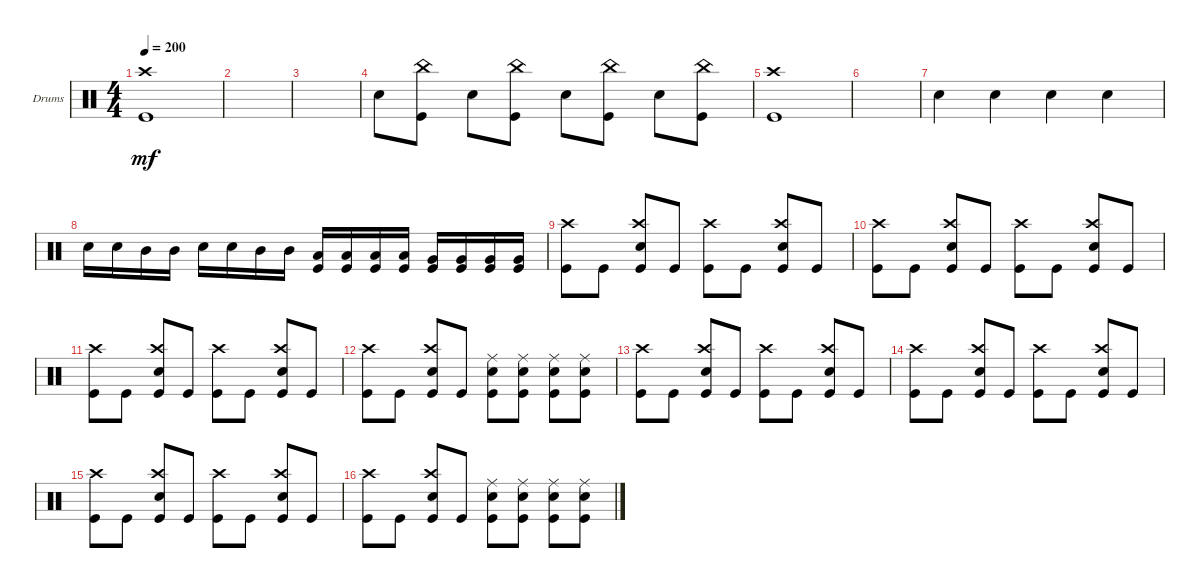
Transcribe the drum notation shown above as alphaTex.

\bracketExtendMode groupsimilarinstruments
\firstSystemTrackNameOrientation horizontal
\otherSystemsTrackNameOrientation horizontal
\track ("Drumkit" "Drums") {instrument percussion}
\staff {score}
\articulation defaults
\ts (4 4)
\tempo 200
\clef neutral
\ks c
("Kick (hit)" "Crash high (hit)").1{dy mf} |
|
|
"Snare (hit) 2".8 ("Kick (hit)" "China (hit)").8 "Snare (hit) 2".8 ("Kick (hit)" "China (hit)").8 "Snare (hit) 2".8 ("Kick (hit)" "China (hit)").8 "Snare (hit) 2".8 ("Kick (hit)" "China (hit)").8 |
("Kick (hit)" "Crash high (hit)").1 |
|
"Snare (hit) 2".4 "Snare (hit) 2".4 "Snare (hit) 2".4 "Snare (hit) 2".4 |
"Snare (hit) 2".16 "Snare (hit) 2".16 "Mid Tom (hit)".16 "Mid Tom (hit)".16 "Snare (hit) 2".16 "Snare (hit) 2".16 "Mid Tom (hit)".16 "Mid Tom (hit)".16 ("Low Tom (hit)" "Kick (hit)").16 ("Low Tom (hit)" "Kick (hit)").16 ("Low Tom (hit)" "Kick (hit)").16 ("Low Tom (hit)" "Kick (hit)").16 ("Very Low Tom (hit)" "Kick (hit)").16 ("Very Low Tom (hit)" "Kick (hit)").16 ("Very Low Tom (hit)" "Kick (hit)").16 ("Very Low Tom (hit)" "Kick (hit)").16 |
("Kick (hit)" "Crash high (hit)").8 "Kick (hit)".8 ("Kick (hit)" "Snare (hit) 2" "Crash high (hit)").8 "Kick (hit)".8 ("Kick (hit)" "Crash high (hit)").8 "Kick (hit)".8 ("Kick (hit)" "Snare (hit) 2" "Crash high (hit)").8 "Kick (hit)".8 |
("Kick (hit)" "Crash high (hit)").8 "Kick (hit)".8 ("Kick (hit)" "Snare (hit) 2" "Crash high (hit)").8 "Kick (hit)".8 ("Kick (hit)" "Crash high (hit)").8 "Kick (hit)".8 ("Kick (hit)" "Snare (hit) 2" "Crash high (hit)").8 "Kick (hit)".8 |
("Kick (hit)" "Crash high (hit)").8 "Kick (hit)".8 ("Kick (hit)" "Snare (hit) 2" "Crash high (hit)").8 "Kick (hit)".8 ("Kick (hit)" "Crash high (hit)").8 "Kick (hit)".8 ("Kick (hit)" "Snare (hit) 2" "Crash high (hit)").8 "Kick (hit)".8 |
("Kick (hit)" "Crash high (hit)").8 "Kick (hit)".8 ("Kick (hit)" "Snare (hit) 2" "Crash high (hit)").8 "Kick (hit)".8 ("Kick (hit)" "Snare (hit) 2" "Ride (middle)").8 ("Kick (hit)" "Snare (hit) 2" "Ride (middle)").8 ("Kick (hit)" "Snare (hit) 2" "Ride (middle)").8 ("Kick (hit)" "Snare (hit) 2" "Ride (middle)").8 |
("Kick (hit)" "Crash high (hit)").8 "Kick (hit)".8 ("Kick (hit)" "Snare (hit) 2" "Crash high (hit)").8 "Kick (hit)".8 ("Kick (hit)" "Crash high (hit)").8 "Kick (hit)".8 ("Kick (hit)" "Snare (hit) 2" "Crash high (hit)").8 "Kick (hit)".8 |
("Kick (hit)" "Crash high (hit)").8 "Kick (hit)".8 ("Kick (hit)" "Snare (hit) 2" "Crash high (hit)").8 "Kick (hit)".8 ("Kick (hit)" "Crash high (hit)").8 "Kick (hit)".8 ("Kick (hit)" "Snare (hit) 2" "Crash high (hit)").8 "Kick (hit)".8 |
("Kick (hit)" "Crash high (hit)").8 "Kick (hit)".8 ("Kick (hit)" "Snare (hit) 2" "Crash high (hit)").8 "Kick (hit)".8 ("Kick (hit)" "Crash high (hit)").8 "Kick (hit)".8 ("Kick (hit)" "Snare (hit) 2" "Crash high (hit)").8 "Kick (hit)".8 |
("Kick (hit)" "Crash high (hit)").8 "Kick (hit)".8 ("Kick (hit)" "Snare (hit) 2" "Crash high (hit)").8 "Kick (hit)".8 ("Kick (hit)" "Snare (hit) 2" "Ride (middle)").8 ("Kick (hit)" "Snare (hit) 2" "Ride (middle)").8 ("Kick (hit)" "Snare (hit) 2" "Ride (middle)").8 ("Kick (hit)" "Snare (hit) 2" "Ride (middle)").8
